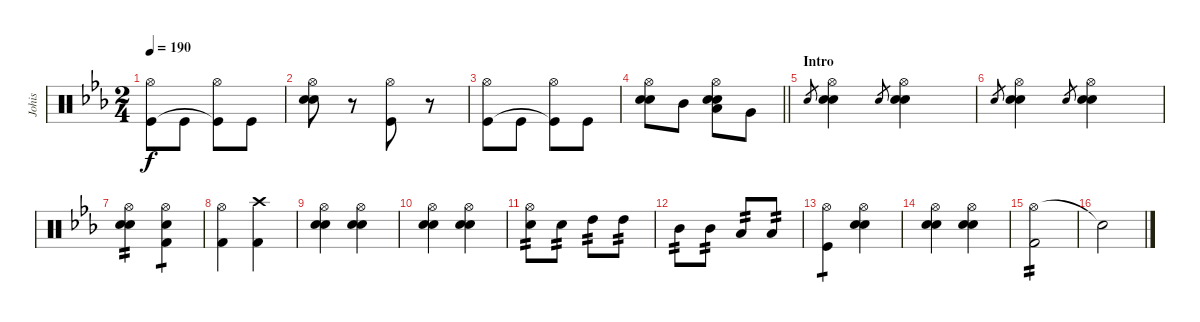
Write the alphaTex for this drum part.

\track ("Johis" "Johis") {instrument percussion}
\staff {score}
\articulation defaults
\ts (2 4)
\tempo 190
\clef neutral
\ks eb
("Hi-Hat (open)" "Kick (hit)").8{dy f} "Kick (hit)".8 ("Hi-Hat (open)" "Kick (hit)"{t}).8 "Kick (hit)".8 |
("Hi-Hat (open)" "Snare (hit) 2" "Electric Snare (hit)").8 r.8 ("Hi-Hat (open)" "Kick (hit)").8 r.8 |
("Hi-Hat (open)" "Kick (hit)").8 "Kick (hit)".8 ("Hi-Hat (open)" "Kick (hit)"{t}).8 "Kick (hit)".8 |
\barLineRight lightlight
("Hi-Hat (open)" "Snare (hit) 2" "Electric Snare (hit)").8 "Mid Tom (hit)".8 ("Hi-Hat (open)" "Snare (hit) 2" "Low Tom (hit)" "Electric Snare (hit)").8 "Very Low Tom (hit)".8 |
\section ("" "Intro")
"Snare (hit) 2".8{gr} ("Hi-Hat (open)" "Electric Snare (hit)" "Snare (hit) 2").4 "Snare (hit) 2".8{gr} ("Hi-Hat (open)" "Electric Snare (hit)" "Snare (hit) 2").4 |
"Snare (hit) 2".8{gr} ("Hi-Hat (open)" "Electric Snare (hit)" "Snare (hit) 2").4 "Snare (hit) 2".8{gr} ("Hi-Hat (open)" "Electric Snare (hit)" "Snare (hit) 2").4 |
("Hi-Hat (open)" "Electric Snare (hit)" "Snare (hit) 2").4{tp 2} ("Hi-Hat (open)" "Electric Snare (hit)" "Kick (hit) 2").4{tp 1} |
("Hi-Hat (open)" "Kick (hit) 2").4 ("Crash high (hit)" "Kick (hit) 2").4 |
("Hi-Hat (open)" "Electric Snare (hit)" "Snare (hit) 2").4 ("Hi-Hat (open)" "Electric Snare (hit)" "Snare (hit) 2").4 |
("Hi-Hat (open)" "Electric Snare (hit)" "Snare (hit) 2").4 ("Hi-Hat (open)" "Electric Snare (hit)" "Snare (hit) 2").4 |
("Hi-Hat (open)" "Snare (hit) 2").8{tp 2} "Electric Snare (hit)".8{tp 2} "High Tom (hit)".8{tp 2} "High Tom (hit)".8{tp 2} |
"Mid Tom (hit)".8{tp 2} "Mid Tom (hit)".8{tp 2} "Low Tom (hit)".8{tp 2} "Low Tom (hit)".8{tp 2} |
("Hi-Hat (open)" "Kick (hit)").4{tp 1} ("Hi-Hat (open)" "Electric Snare (hit)" "Snare (hit) 2").4 |
("Hi-Hat (open)" "Electric Snare (hit)" "Snare (hit) 2").4 ("Hi-Hat (open)" "Electric Snare (hit)" "Snare (hit) 2").4 |
("Hi-Hat (open)" "Kick (hit) 2").2{tp 2} |
"Snare (hit)"{t}.2
